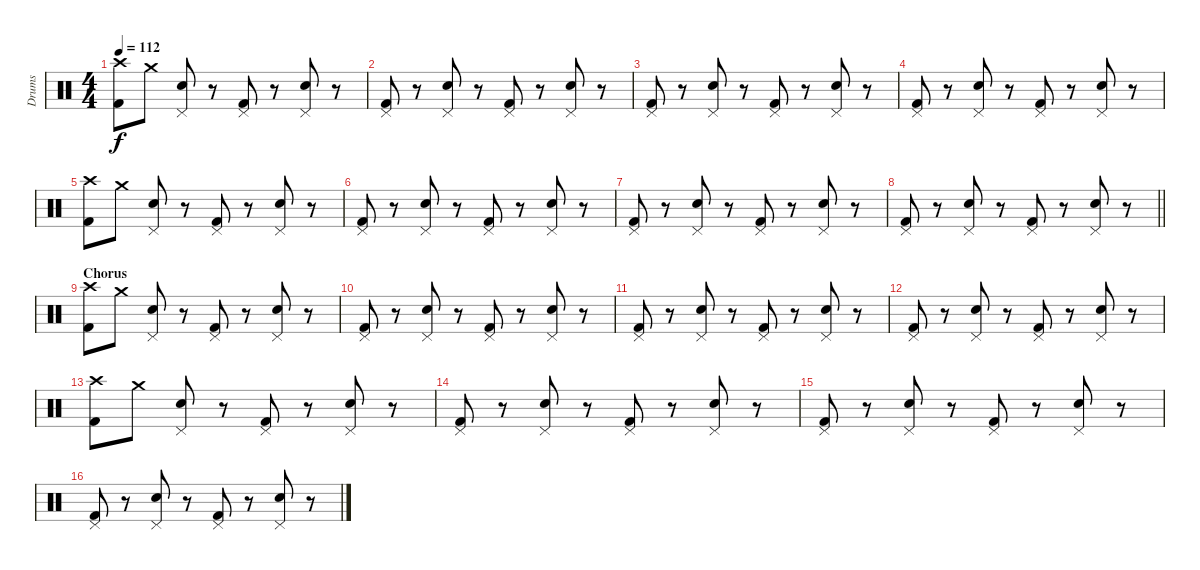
\track ("Drums" "Drums") {instrument percussion}
\staff {score}
\articulation defaults
\ts (4 4)
\tempo 112
\clef neutral
\ks c
("Crash high (hit)" "Kick (hit) 2").8{dy f} "Crash medium (hit)".8 ("Pedal Hi-Hat (hit)" "Snare (hit) 2").8 r.8 ("Pedal Hi-Hat (hit)" "Kick (hit) 2").8 r.8 ("Pedal Hi-Hat (hit)" "Snare (hit) 2").8 r.8 |
("Pedal Hi-Hat (hit)" "Kick (hit) 2").8 r.8 ("Pedal Hi-Hat (hit)" "Snare (hit) 2").8 r.8 ("Pedal Hi-Hat (hit)" "Kick (hit) 2").8 r.8 ("Pedal Hi-Hat (hit)" "Snare (hit) 2").8 r.8 |
("Pedal Hi-Hat (hit)" "Kick (hit) 2").8 r.8 ("Pedal Hi-Hat (hit)" "Snare (hit) 2").8 r.8 ("Pedal Hi-Hat (hit)" "Kick (hit) 2").8 r.8 ("Pedal Hi-Hat (hit)" "Snare (hit) 2").8 r.8 |
("Pedal Hi-Hat (hit)" "Kick (hit) 2").8 r.8 ("Pedal Hi-Hat (hit)" "Snare (hit) 2").8 r.8 ("Pedal Hi-Hat (hit)" "Kick (hit) 2").8 r.8 ("Pedal Hi-Hat (hit)" "Snare (hit) 2").8 r.8 |
("Crash high (hit)" "Kick (hit) 2").8 "Crash medium (hit)".8 ("Pedal Hi-Hat (hit)" "Snare (hit) 2").8 r.8 ("Pedal Hi-Hat (hit)" "Kick (hit) 2").8 r.8 ("Pedal Hi-Hat (hit)" "Snare (hit) 2").8 r.8 |
("Pedal Hi-Hat (hit)" "Kick (hit) 2").8 r.8 ("Pedal Hi-Hat (hit)" "Snare (hit) 2").8 r.8 ("Pedal Hi-Hat (hit)" "Kick (hit) 2").8 r.8 ("Pedal Hi-Hat (hit)" "Snare (hit) 2").8 r.8 |
("Pedal Hi-Hat (hit)" "Kick (hit) 2").8 r.8 ("Pedal Hi-Hat (hit)" "Snare (hit) 2").8 r.8 ("Pedal Hi-Hat (hit)" "Kick (hit) 2").8 r.8 ("Pedal Hi-Hat (hit)" "Snare (hit) 2").8 r.8 |
\barLineRight lightlight
("Pedal Hi-Hat (hit)" "Kick (hit) 2").8 r.8 ("Pedal Hi-Hat (hit)" "Snare (hit) 2").8 r.8 ("Pedal Hi-Hat (hit)" "Kick (hit) 2").8 r.8 ("Pedal Hi-Hat (hit)" "Snare (hit) 2").8 r.8 |
\section ("" "Chorus")
("Crash high (hit)" "Kick (hit) 2").8 "Crash medium (hit)".8 ("Pedal Hi-Hat (hit)" "Snare (hit) 2").8 r.8 ("Pedal Hi-Hat (hit)" "Kick (hit) 2").8 r.8 ("Pedal Hi-Hat (hit)" "Snare (hit) 2").8 r.8 |
("Pedal Hi-Hat (hit)" "Kick (hit) 2").8 r.8 ("Pedal Hi-Hat (hit)" "Snare (hit) 2").8 r.8 ("Pedal Hi-Hat (hit)" "Kick (hit) 2").8 r.8 ("Pedal Hi-Hat (hit)" "Snare (hit) 2").8 r.8 |
("Pedal Hi-Hat (hit)" "Kick (hit) 2").8 r.8 ("Pedal Hi-Hat (hit)" "Snare (hit) 2").8 r.8 ("Pedal Hi-Hat (hit)" "Kick (hit) 2").8 r.8 ("Pedal Hi-Hat (hit)" "Snare (hit) 2").8 r.8 |
("Pedal Hi-Hat (hit)" "Kick (hit) 2").8 r.8 ("Pedal Hi-Hat (hit)" "Snare (hit) 2").8 r.8 ("Pedal Hi-Hat (hit)" "Kick (hit) 2").8 r.8 ("Pedal Hi-Hat (hit)" "Snare (hit) 2").8 r.8 |
("Crash high (hit)" "Kick (hit) 2").8 "Crash medium (hit)".8 ("Pedal Hi-Hat (hit)" "Snare (hit) 2").8 r.8 ("Pedal Hi-Hat (hit)" "Kick (hit) 2").8 r.8 ("Pedal Hi-Hat (hit)" "Snare (hit) 2").8 r.8 |
("Pedal Hi-Hat (hit)" "Kick (hit) 2").8 r.8 ("Pedal Hi-Hat (hit)" "Snare (hit) 2").8 r.8 ("Pedal Hi-Hat (hit)" "Kick (hit) 2").8 r.8 ("Pedal Hi-Hat (hit)" "Snare (hit) 2").8 r.8 |
("Pedal Hi-Hat (hit)" "Kick (hit) 2").8 r.8 ("Pedal Hi-Hat (hit)" "Snare (hit) 2").8 r.8 ("Pedal Hi-Hat (hit)" "Kick (hit) 2").8 r.8 ("Pedal Hi-Hat (hit)" "Snare (hit) 2").8 r.8 |
("Pedal Hi-Hat (hit)" "Kick (hit) 2").8 r.8 ("Pedal Hi-Hat (hit)" "Snare (hit) 2").8 r.8 ("Pedal Hi-Hat (hit)" "Kick (hit) 2").8 r.8 ("Pedal Hi-Hat (hit)" "Snare (hit) 2").8 r.8
